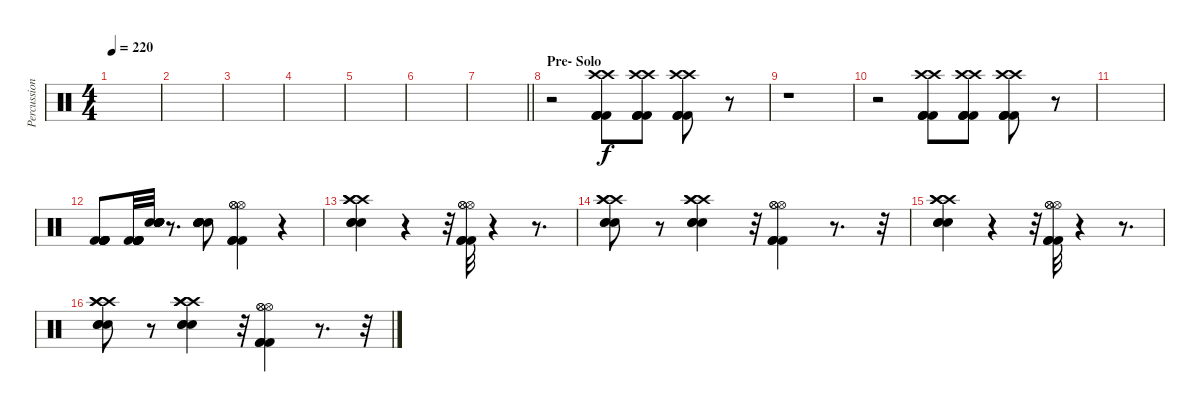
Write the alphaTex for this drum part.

\track ("Percussion" "Percussion") {instrument percussion}
\staff {score}
\articulation defaults
\ts (4 4)
\tempo 220
\clef neutral
\ks c
|
|
|
|
|
|
\barLineRight lightlight
|
\section ("" "Pre- Solo")
r.2 ("Crash high (hit)" "Crash high (hit)" "Kick (hit) 2" "Kick (hit) 2" "Kick (hit) 2" "Kick (hit) 2").8 ("Crash high (hit)" "Crash high (hit)" "Kick (hit) 2" "Kick (hit) 2" "Kick (hit) 2" "Kick (hit) 2").8 ("Crash high (hit)" "Crash high (hit)" "Kick (hit) 2" "Kick (hit) 2" "Kick (hit) 2" "Kick (hit) 2").8 r.8 |
r.1 |
r.2 ("Crash high (hit)" "Crash high (hit)" "Kick (hit) 2" "Kick (hit) 2" "Kick (hit) 2" "Kick (hit) 2").8 ("Crash high (hit)" "Crash high (hit)" "Kick (hit) 2" "Kick (hit) 2" "Kick (hit) 2" "Kick (hit) 2").8 ("Crash high (hit)" "Crash high (hit)" "Kick (hit) 2" "Kick (hit) 2" "Kick (hit) 2" "Kick (hit) 2").8 r.8 |
|
("Kick (hit) 2" "Kick (hit) 2" "Kick (hit) 2" "Kick (hit) 2" "Kick (hit) 2" "Kick (hit) 2").8 ("Kick (hit) 2" "Kick (hit) 2" "Kick (hit) 2" "Kick (hit) 2" "Kick (hit) 2" "Kick (hit) 2").32 ("Snare (hit) 2" "Snare (hit) 2" "Snare (hit) 2" "Snare (hit) 2" "Snare (hit) 2" "Snare (hit) 2").32 r.8{d} ("Snare (hit) 2" "Snare (hit) 2" "Snare (hit) 2" "Snare (hit) 2" "Snare (hit) 2" "Snare (hit) 2").8 ("Hi-Hat (open)" "Hi-Hat (open)" "Hi-Hat (open)" "Kick (hit) 2" "Kick (hit) 2" "Kick (hit) 2").4 r.4 |
("Crash high (hit)" "Crash high (hit)" "Crash high (hit)" "Snare (hit) 2" "Snare (hit) 2" "Snare (hit) 2").4 r.4 r.32 ("Hi-Hat (open)" "Hi-Hat (open)" "Hi-Hat (open)" "Kick (hit) 2" "Kick (hit) 2" "Kick (hit) 2").32 r.4 r.8{d} |
("Crash high (hit)" "Crash high (hit)" "Crash high (hit)" "Snare (hit) 2" "Snare (hit) 2" "Snare (hit) 2").8 r.8 ("Crash high (hit)" "Crash high (hit)" "Crash high (hit)" "Snare (hit) 2" "Snare (hit) 2" "Snare (hit) 2").4 r.32 ("Hi-Hat (open)" "Hi-Hat (open)" "Hi-Hat (open)" "Kick (hit) 2" "Kick (hit) 2" "Kick (hit) 2").4 r.8{d} r.32 |
("Crash high (hit)" "Crash high (hit)" "Crash high (hit)" "Snare (hit) 2" "Snare (hit) 2" "Snare (hit) 2").4 r.4 r.32 ("Hi-Hat (open)" "Hi-Hat (open)" "Hi-Hat (open)" "Kick (hit) 2" "Kick (hit) 2" "Kick (hit) 2").32 r.4 r.8{d} |
("Crash high (hit)" "Crash high (hit)" "Crash high (hit)" "Snare (hit) 2" "Snare (hit) 2" "Snare (hit) 2").8 r.8 ("Crash high (hit)" "Crash high (hit)" "Crash high (hit)" "Snare (hit) 2" "Snare (hit) 2" "Snare (hit) 2").4 r.32 ("Hi-Hat (open)" "Hi-Hat (open)" "Hi-Hat (open)" "Kick (hit) 2" "Kick (hit) 2" "Kick (hit) 2").4 r.8{d} r.32
